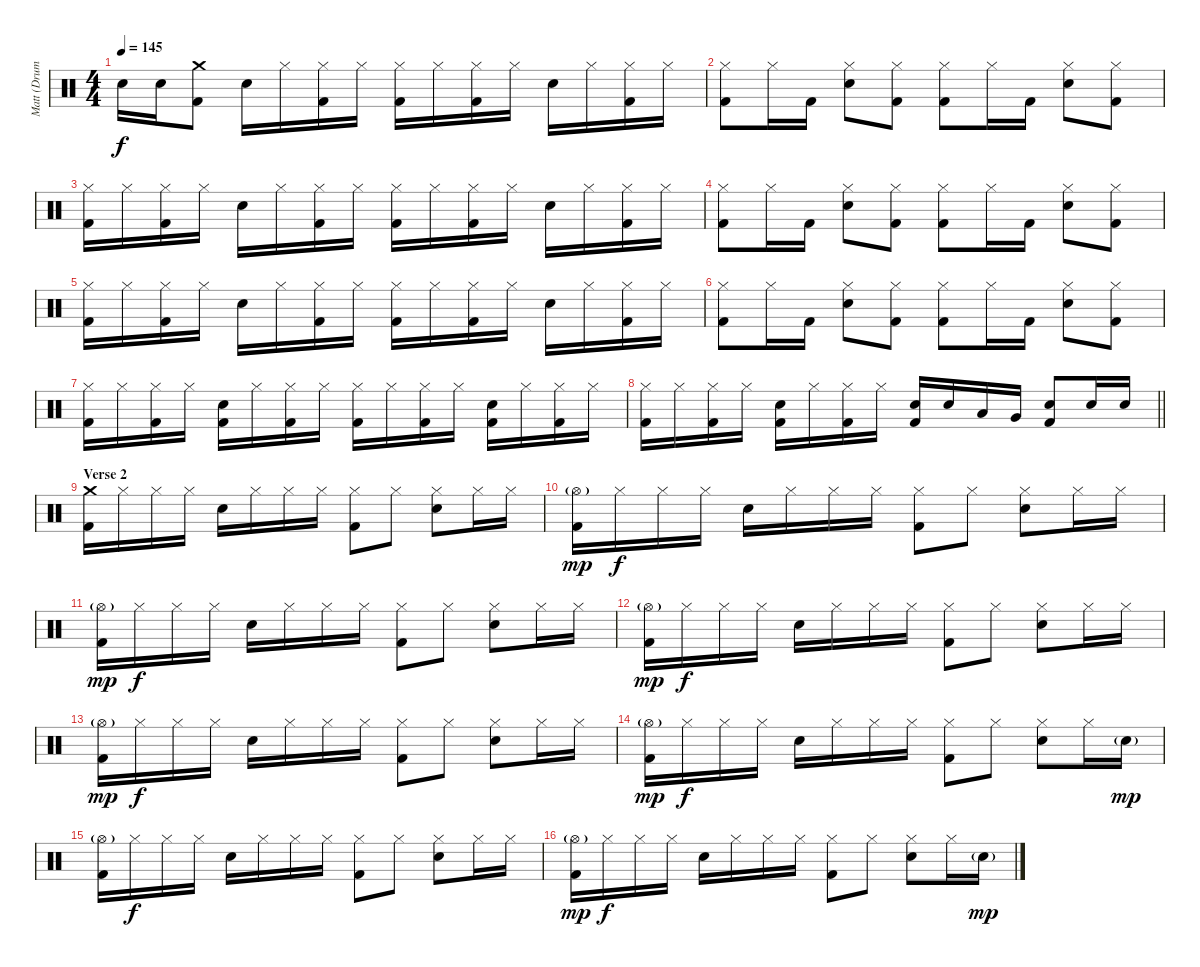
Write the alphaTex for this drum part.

\track ("Matt (Drums)" "Matt (Drum") {instrument percussion}
\staff {score}
\articulation defaults
\ts (4 4)
\tempo 145
\clef neutral
\ks c "Electric Snare (hit)".16{dy f} "Electric Snare (hit)".16
("Crash medium (hit)" "Kick (hit) 2").8 "Electric Snare (hit)".16 "Hi-Hat (closed)".16 ("Hi-Hat (closed)" "Kick (hit) 2").16 "Hi-Hat (closed)".16 ("Hi-Hat (closed)" "Kick (hit) 2").16 "Hi-Hat (closed)".16 ("Hi-Hat (closed)" "Kick (hit) 2").16 "Hi-Hat (closed)".16 "Electric Snare (hit)".16 "Hi-Hat (closed)".16 ("Hi-Hat (closed)" "Kick (hit) 2").16 "Hi-Hat (closed)".16 |
("Hi-Hat (closed)" "Kick (hit) 2").8 "Hi-Hat (closed)".16 "Kick (hit) 2".16 ("Hi-Hat (closed)" "Electric Snare (hit)").8 ("Hi-Hat (closed)" "Kick (hit) 2").8 ("Hi-Hat (closed)" "Kick (hit) 2").8 "Hi-Hat (closed)".16 "Kick (hit) 2".16 ("Hi-Hat (closed)" "Electric Snare (hit)").8 ("Hi-Hat (closed)" "Kick (hit) 2").8 |
("Hi-Hat (closed)" "Kick (hit) 2").16 "Hi-Hat (closed)".16 ("Hi-Hat (closed)" "Kick (hit) 2").16 "Hi-Hat (closed)".16 "Electric Snare (hit)".16 "Hi-Hat (closed)".16 ("Hi-Hat (closed)" "Kick (hit) 2").16 "Hi-Hat (closed)".16 ("Hi-Hat (closed)" "Kick (hit) 2").16 "Hi-Hat (closed)".16 ("Hi-Hat (closed)" "Kick (hit) 2").16 "Hi-Hat (closed)".16 "Electric Snare (hit)".16 "Hi-Hat (closed)".16 ("Hi-Hat (closed)" "Kick (hit) 2").16 "Hi-Hat (closed)".16 |
("Hi-Hat (closed)" "Kick (hit) 2").8 "Hi-Hat (closed)".16 "Kick (hit) 2".16 ("Hi-Hat (closed)" "Electric Snare (hit)").8 ("Hi-Hat (closed)" "Kick (hit) 2").8 ("Hi-Hat (closed)" "Kick (hit) 2").8 "Hi-Hat (closed)".16 "Kick (hit) 2".16 ("Hi-Hat (closed)" "Electric Snare (hit)").8 ("Hi-Hat (closed)" "Kick (hit) 2").8 |
("Hi-Hat (closed)" "Kick (hit) 2").16 "Hi-Hat (closed)".16 ("Hi-Hat (closed)" "Kick (hit) 2").16 "Hi-Hat (closed)".16 "Electric Snare (hit)".16 "Hi-Hat (closed)".16 ("Hi-Hat (closed)" "Kick (hit) 2").16 "Hi-Hat (closed)".16 ("Hi-Hat (closed)" "Kick (hit) 2").16 "Hi-Hat (closed)".16 ("Hi-Hat (closed)" "Kick (hit) 2").16 "Hi-Hat (closed)".16 "Electric Snare (hit)".16 "Hi-Hat (closed)".16 ("Hi-Hat (closed)" "Kick (hit) 2").16 "Hi-Hat (closed)".16 |
("Hi-Hat (closed)" "Kick (hit) 2").8 "Hi-Hat (closed)".16 "Kick (hit) 2".16 ("Hi-Hat (closed)" "Electric Snare (hit)").8 ("Hi-Hat (closed)" "Kick (hit) 2").8 ("Hi-Hat (closed)" "Kick (hit) 2").8 "Hi-Hat (closed)".16 "Kick (hit) 2".16 ("Hi-Hat (closed)" "Electric Snare (hit)").8 ("Hi-Hat (closed)" "Kick (hit) 2").8 |
("Hi-Hat (closed)" "Kick (hit) 2").16 "Hi-Hat (closed)".16 ("Hi-Hat (closed)" "Kick (hit) 2").16 "Hi-Hat (closed)".16 ("Electric Snare (hit)" "Kick (hit) 2").16 "Hi-Hat (closed)".16 ("Hi-Hat (closed)" "Kick (hit) 2").16 "Hi-Hat (closed)".16 ("Hi-Hat (closed)" "Kick (hit) 2").16 "Hi-Hat (closed)".16 ("Hi-Hat (closed)" "Kick (hit) 2").16 "Hi-Hat (closed)".16 ("Electric Snare (hit)" "Kick (hit) 2").16 "Hi-Hat (closed)".16 ("Hi-Hat (closed)" "Kick (hit) 2").16 "Hi-Hat (closed)".16 |
\barLineRight lightlight
("Hi-Hat (closed)" "Kick (hit) 2").16 "Hi-Hat (closed)".16 ("Hi-Hat (closed)" "Kick (hit) 2").16 "Hi-Hat (closed)".16 ("Electric Snare (hit)" "Kick (hit) 2").16 "Hi-Hat (closed)".16 ("Hi-Hat (closed)" "Kick (hit) 2").16 "Hi-Hat (closed)".16 ("Electric Snare (hit)" "Kick (hit) 2").16 "Electric Snare (hit)".16 "Low Tom (hit)".16 "Very Low Tom (hit)".16 ("Electric Snare (hit)" "Kick (hit) 2").8 "Electric Snare (hit)".16 "Electric Snare (hit)".16 |
\section ("" "Verse 2")
("Crash medium (hit)" "Kick (hit) 2").16 "Hi-Hat (closed)".16 "Hi-Hat (closed)".16 "Hi-Hat (closed)".16 "Electric Snare (hit)".16 "Hi-Hat (closed)".16 "Hi-Hat (closed)".16 "Hi-Hat (closed)".16 ("Hi-Hat (closed)" "Kick (hit) 2").8 "Hi-Hat (closed)".8 ("Hi-Hat (closed)" "Electric Snare (hit)").8 "Hi-Hat (closed)".16 "Hi-Hat (closed)".16 |
("Hi-Hat (open)"{g} "Kick (hit) 2").16{dy mp} "Hi-Hat (closed)".16{dy f} "Hi-Hat (closed)".16 "Hi-Hat (closed)".16 "Electric Snare (hit)".16 "Hi-Hat (closed)".16 "Hi-Hat (closed)".16 "Hi-Hat (closed)".16 ("Hi-Hat (closed)" "Kick (hit) 2").8 "Hi-Hat (closed)".8 ("Hi-Hat (closed)" "Electric Snare (hit)").8 "Hi-Hat (closed)".16 "Hi-Hat (closed)".16 |
("Hi-Hat (open)"{g} "Kick (hit) 2").16{dy mp} "Hi-Hat (closed)".16{dy f} "Hi-Hat (closed)".16 "Hi-Hat (closed)".16 "Electric Snare (hit)".16 "Hi-Hat (closed)".16 "Hi-Hat (closed)".16 "Hi-Hat (closed)".16 ("Hi-Hat (closed)" "Kick (hit) 2").8 "Hi-Hat (closed)".8 ("Hi-Hat (closed)" "Electric Snare (hit)").8 "Hi-Hat (closed)".16 "Hi-Hat (closed)".16 |
("Hi-Hat (open)"{g} "Kick (hit) 2").16{dy mp} "Hi-Hat (closed)".16{dy f} "Hi-Hat (closed)".16 "Hi-Hat (closed)".16 "Electric Snare (hit)".16 "Hi-Hat (closed)".16 "Hi-Hat (closed)".16 "Hi-Hat (closed)".16 ("Hi-Hat (closed)" "Kick (hit) 2").8 "Hi-Hat (closed)".8 ("Hi-Hat (closed)" "Electric Snare (hit)").8 "Hi-Hat (closed)".16 "Hi-Hat (closed)".16 |
("Hi-Hat (open)"{g} "Kick (hit) 2").16{dy mp} "Hi-Hat (closed)".16{dy f} "Hi-Hat (closed)".16 "Hi-Hat (closed)".16 "Electric Snare (hit)".16 "Hi-Hat (closed)".16 "Hi-Hat (closed)".16 "Hi-Hat (closed)".16 ("Hi-Hat (closed)" "Kick (hit) 2").8 "Hi-Hat (closed)".8 ("Hi-Hat (closed)" "Electric Snare (hit)").8 "Hi-Hat (closed)".16 "Hi-Hat (closed)".16 |
("Hi-Hat (open)"{g} "Kick (hit) 2").16{dy mp} "Hi-Hat (closed)".16{dy f} "Hi-Hat (closed)".16 "Hi-Hat (closed)".16 "Electric Snare (hit)".16 "Hi-Hat (closed)".16 "Hi-Hat (closed)".16 "Hi-Hat (closed)".16 ("Hi-Hat (closed)" "Kick (hit) 2").8 "Hi-Hat (closed)".8 ("Hi-Hat (closed)" "Electric Snare (hit)").8 "Hi-Hat (closed)".16 "Electric Snare (hit)"{g}.16{dy mp} |
("Hi-Hat (open)"{g} "Kick (hit) 2").16 "Hi-Hat (closed)".16{dy f} "Hi-Hat (closed)".16 "Hi-Hat (closed)".16 "Electric Snare (hit)".16 "Hi-Hat (closed)".16 "Hi-Hat (closed)".16 "Hi-Hat (closed)".16 ("Hi-Hat (closed)" "Kick (hit) 2").8 "Hi-Hat (closed)".8 ("Hi-Hat (closed)" "Electric Snare (hit)").8 "Hi-Hat (closed)".16 "Hi-Hat (closed)".16 |
("Hi-Hat (open)"{g} "Kick (hit) 2").16{dy mp} "Hi-Hat (closed)".16{dy f} "Hi-Hat (closed)".16 "Hi-Hat (closed)".16 "Electric Snare (hit)".16 "Hi-Hat (closed)".16 "Hi-Hat (closed)".16 "Hi-Hat (closed)".16 ("Hi-Hat (closed)" "Kick (hit) 2").8 "Hi-Hat (closed)".8 ("Hi-Hat (closed)" "Electric Snare (hit)").8 "Hi-Hat (closed)".16 "Electric Snare (hit)"{g}.16{dy mp}
